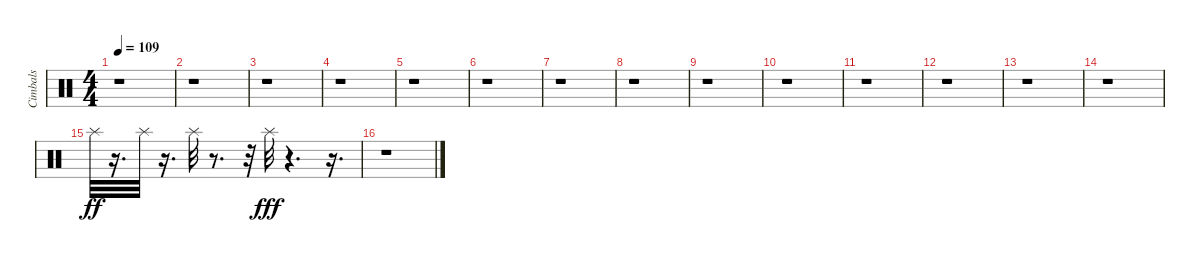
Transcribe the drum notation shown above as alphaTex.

\track ("Cimbals" "Cimbals") {instrument percussion}
\staff {score}
\articulation defaults
\ts (4 4)
\tempo 109
\clef neutral
\ks c
r.1{dy ff} |
r.1 |
r.1 |
r.1 |
r.1 |
r.1 |
r.1 |
r.1 |
r.1 |
r.1 |
r.1 |
r.1 |
r.1 |
r.1 |
"Splash (hit)".32 r.16{d} "Splash (hit)".32 r.16{d} "Splash (hit)".32 r.8{d} r.32 "Splash (hit)".32{dy fff} r.4{d} r.16{d} |
r.1
